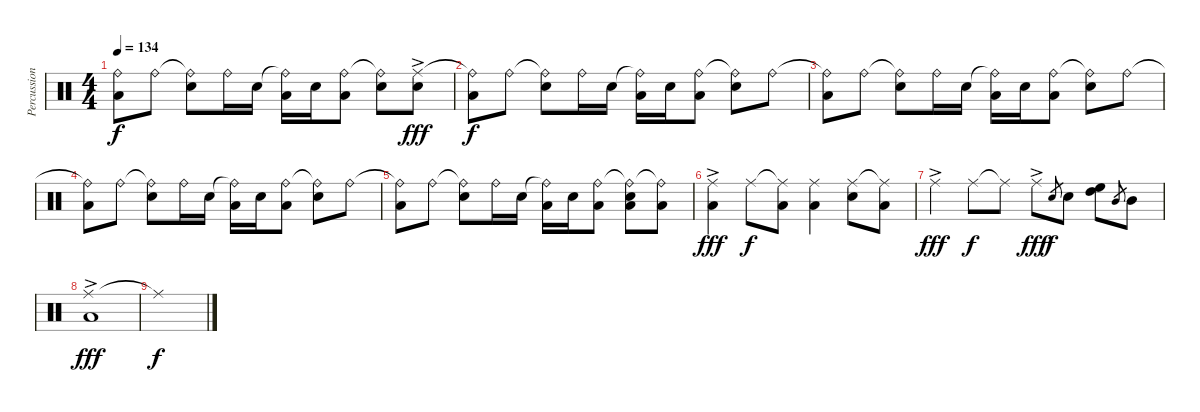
\track ("Percussion" "Percussion") {instrument percussion}
\staff {score}
\articulation defaults
\ts (4 4)
\tempo 134
\clef neutral
\ks c
("Ride (bell)"{t} "Low Floor Tom (hit)").8{dy f} "Ride (bell)".8 ("Ride (bell)"{t} "Snare (hit) 2").8 "Ride (bell)".16 "Snare (hit) 2".16 ("Ride (bell)"{t} "Low Floor Tom (hit)").16 "Snare (hit) 2".16 ("Ride (bell)" "Low Floor Tom (hit)").8 ("Ride (bell)"{t} "Snare (hit) 2").8 ("Ride (middle)"{ac} "Snare (hit) 2").8{dy fff} |
("Ride (bell)"{t} "Low Floor Tom (hit)").8{dy f} "Ride (bell)".8 ("Ride (bell)"{t} "Snare (hit) 2").8 "Ride (bell)".16 "Snare (hit) 2".16 ("Ride (bell)"{t} "Low Floor Tom (hit)").16 "Snare (hit) 2".16 ("Ride (bell)" "Low Floor Tom (hit)").8 ("Ride (bell)"{t} "Snare (hit) 2").8 "Ride (bell)".8 |
("Ride (bell)"{t} "Low Floor Tom (hit)").8 "Ride (bell)".8 ("Ride (bell)"{t} "Snare (hit) 2").8 "Ride (bell)".16 "Snare (hit) 2".16 ("Ride (bell)"{t} "Low Floor Tom (hit)").16 "Snare (hit) 2".16 ("Ride (bell)" "Low Floor Tom (hit)").8 ("Ride (bell)"{t} "Snare (hit) 2").8 "Ride (bell)".8 |
("Ride (bell)"{t} "Low Floor Tom (hit)").8 "Ride (bell)".8 ("Ride (bell)"{t} "Snare (hit) 2").8 "Ride (bell)".16 "Snare (hit) 2".16 ("Ride (bell)"{t} "Low Floor Tom (hit)").16 "Snare (hit) 2".16 ("Ride (bell)" "Low Floor Tom (hit)").8 ("Ride (bell)"{t} "Snare (hit) 2").8 "Ride (bell)".8 |
("Ride (bell)"{t} "Low Floor Tom (hit)").8 "Ride (bell)".8 ("Ride (bell)"{t} "Snare (hit) 2").8 "Ride (bell)".16 "Snare (hit) 2".16 ("Ride (bell)"{t} "Low Floor Tom (hit)").16 "Snare (hit) 2".16 ("Ride (bell)" "Low Floor Tom (hit)").8 ("Ride (bell)"{t} "Snare (hit) 2" "Low Tom (hit)").8 ("Ride (bell)"{t} "Low Floor Tom (hit)").8 |
("Ride (middle)"{ac} "Low Floor Tom (hit)").4{dy fff} "Ride (middle)".8{dy f} ("Ride (middle)"{t} "Low Floor Tom (hit)").8 ("Ride (middle)" "Low Floor Tom (hit)").4 ("Ride (middle)" "Snare (hit) 2").8 ("Ride (middle)"{t} "Low Floor Tom (hit)").8 |
"Ride (middle)"{ac}.4{dy fff} "Ride (middle)".8{dy f} "Ride (middle)"{t}.8 "Ride (middle)"{ac}.8{dy fff} "Snare (hit) 2".8{gr dy f} "Snare (hit) 2".8 ("High Floor Tom (hit)" "High Tom (hit)").8 "Mid Tom (hit)".8{gr} "Mid Tom (hit)".8 |
("Ride (middle)"{ac} "Low Floor Tom (hit)").1{dy fff} |
"Ride (middle)"{t}.1{dy f}
